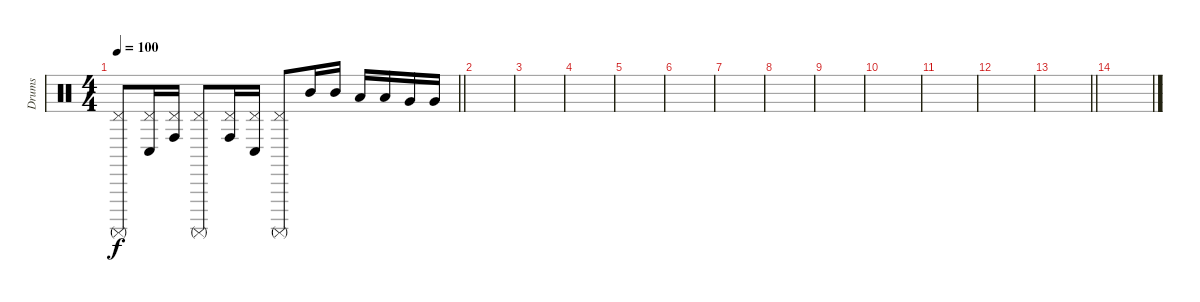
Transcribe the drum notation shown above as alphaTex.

\track ("Drums" "Drums") {instrument percussion}
\staff
\articulation defaults
\ts (4 4)
\tempo 100
\clef neutral
\barLineRight lightlight
\ks c
("Pedal Hi-Hat (hit)" "Surdo (mute)").8{dy f} ("Pedal Hi-Hat (hit)" "Conga low (hit)").16 ("Pedal Hi-Hat (hit)" "Conga high (hit)").16 ("Pedal Hi-Hat (hit)" "Surdo (mute)").8 ("Pedal Hi-Hat (hit)" "Conga high (hit)").16 ("Pedal Hi-Hat (hit)" "Conga low (hit)").16 ("Pedal Hi-Hat (hit)" "Surdo (mute)").8 "Mid Tom (hit)".16 "Mid Tom (hit)".16 "Low Tom (hit)".16 "Low Tom (hit)".16 "Very Low Tom (hit)".16 "Very Low Tom (hit)".16 |
|
|
|
|
|
|
|
|
|
|
|
\barLineRight lightlight
|
\section ("" "")
